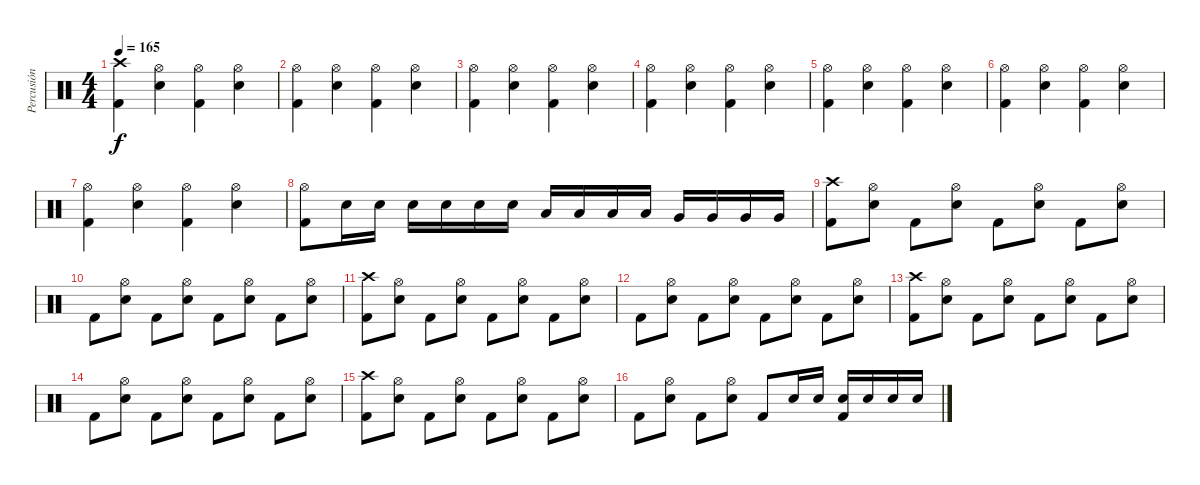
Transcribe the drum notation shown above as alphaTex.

\track ("Percusión" "Percusión") {instrument percussion}
\staff {score}
\articulation defaults
\ts (4 4)
\tempo 165
\clef neutral
\ks c
("Crash high (hit)" "Kick (hit) 2").4{dy f} ("Hi-Hat (open)" "Snare (hit) 2").4 ("Hi-Hat (open)" "Kick (hit) 2").4 ("Hi-Hat (open)" "Snare (hit) 2").4 |
("Hi-Hat (open)" "Kick (hit) 2").4 ("Hi-Hat (open)" "Snare (hit) 2").4 ("Hi-Hat (open)" "Kick (hit) 2").4 ("Hi-Hat (open)" "Snare (hit) 2").4 |
("Hi-Hat (open)" "Kick (hit) 2").4 ("Hi-Hat (open)" "Snare (hit) 2").4 ("Hi-Hat (open)" "Kick (hit) 2").4 ("Hi-Hat (open)" "Snare (hit) 2").4 |
("Hi-Hat (open)" "Kick (hit) 2").4 ("Hi-Hat (open)" "Snare (hit) 2").4 ("Hi-Hat (open)" "Kick (hit) 2").4 ("Hi-Hat (open)" "Snare (hit) 2").4 |
("Hi-Hat (open)" "Kick (hit) 2").4 ("Hi-Hat (open)" "Snare (hit) 2").4 ("Hi-Hat (open)" "Kick (hit) 2").4 ("Hi-Hat (open)" "Snare (hit) 2").4 |
("Hi-Hat (open)" "Kick (hit) 2").4 ("Hi-Hat (open)" "Snare (hit) 2").4 ("Hi-Hat (open)" "Kick (hit) 2").4 ("Hi-Hat (open)" "Snare (hit) 2").4 |
("Hi-Hat (open)" "Kick (hit) 2").4 ("Hi-Hat (open)" "Snare (hit) 2").4 ("Hi-Hat (open)" "Kick (hit) 2").4 ("Hi-Hat (open)" "Snare (hit) 2").4 |
("Hi-Hat (open)" "Kick (hit) 2").8 "Snare (hit) 2".16 "Snare (hit) 2".16 "Snare (hit) 2".16 "Snare (hit) 2".16 "Snare (hit) 2".16 "Snare (hit) 2".16 "Low Tom (hit)".16 "Low Tom (hit)".16 "Low Tom (hit)".16 "Low Tom (hit)".16 "Very Low Tom (hit)".16 "Very Low Tom (hit)".16 "Very Low Tom (hit)".16 "Very Low Tom (hit)".16 |
("Crash high (hit)" "Kick (hit) 2").8 ("Hi-Hat (open)" "Snare (hit) 2").8 "Kick (hit) 2".8 ("Hi-Hat (open)" "Snare (hit) 2").8 "Kick (hit) 2".8 ("Hi-Hat (open)" "Snare (hit) 2").8 "Kick (hit) 2".8 ("Hi-Hat (open)" "Snare (hit) 2").8 |
"Kick (hit) 2".8 ("Hi-Hat (open)" "Snare (hit) 2").8 "Kick (hit) 2".8 ("Hi-Hat (open)" "Snare (hit) 2").8 "Kick (hit) 2".8 ("Hi-Hat (open)" "Snare (hit) 2").8 "Kick (hit) 2".8 ("Hi-Hat (open)" "Snare (hit) 2").8 |
("Crash high (hit)" "Kick (hit) 2").8 ("Hi-Hat (open)" "Snare (hit) 2").8 "Kick (hit) 2".8 ("Hi-Hat (open)" "Snare (hit) 2").8 "Kick (hit) 2".8 ("Hi-Hat (open)" "Snare (hit) 2").8 "Kick (hit) 2".8 ("Hi-Hat (open)" "Snare (hit) 2").8 |
"Kick (hit) 2".8 ("Hi-Hat (open)" "Snare (hit) 2").8 "Kick (hit) 2".8 ("Hi-Hat (open)" "Snare (hit) 2").8 "Kick (hit) 2".8 ("Hi-Hat (open)" "Snare (hit) 2").8 "Kick (hit) 2".8 ("Hi-Hat (open)" "Snare (hit) 2").8 |
("Crash high (hit)" "Kick (hit) 2").8 ("Hi-Hat (open)" "Snare (hit) 2").8 "Kick (hit) 2".8 ("Hi-Hat (open)" "Snare (hit) 2").8 "Kick (hit) 2".8 ("Hi-Hat (open)" "Snare (hit) 2").8 "Kick (hit) 2".8 ("Hi-Hat (open)" "Snare (hit) 2").8 |
"Kick (hit) 2".8 ("Hi-Hat (open)" "Snare (hit) 2").8 "Kick (hit) 2".8 ("Hi-Hat (open)" "Snare (hit) 2").8 "Kick (hit) 2".8 ("Hi-Hat (open)" "Snare (hit) 2").8 "Kick (hit) 2".8 ("Hi-Hat (open)" "Snare (hit) 2").8 |
("Crash high (hit)" "Kick (hit) 2").8 ("Hi-Hat (open)" "Snare (hit) 2").8 "Kick (hit) 2".8 ("Hi-Hat (open)" "Snare (hit) 2").8 "Kick (hit) 2".8 ("Hi-Hat (open)" "Snare (hit) 2").8 "Kick (hit) 2".8 ("Hi-Hat (open)" "Snare (hit) 2").8 |
"Kick (hit) 2".8 ("Hi-Hat (open)" "Snare (hit) 2").8 "Kick (hit) 2".8 ("Hi-Hat (open)" "Snare (hit) 2").8 "Kick (hit) 2".8 "Snare (hit) 2".16 "Snare (hit) 2".16 ("Kick (hit) 2" "Snare (hit) 2").16 "Snare (hit) 2".16 "Snare (hit) 2".16 "Snare (hit) 2".16
